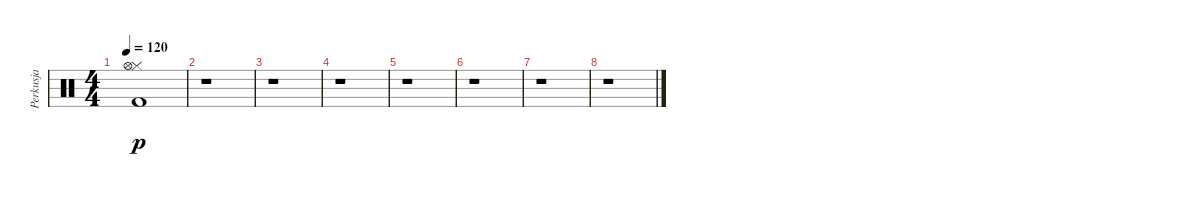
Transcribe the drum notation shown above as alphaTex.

\track ("Perkusja" "Perkusja") {instrument percussion}
\staff {score}
\articulation defaults
\ts (4 4)
\tempo 120
\clef neutral
\ks c
("Kick (hit) 2" "Hi-Hat (closed)" "Hi-Hat (open)").1{dy p} |
r.1 |
r.1 |
r.1 |
r.1 |
r.1 |
r.1 |
r.1
